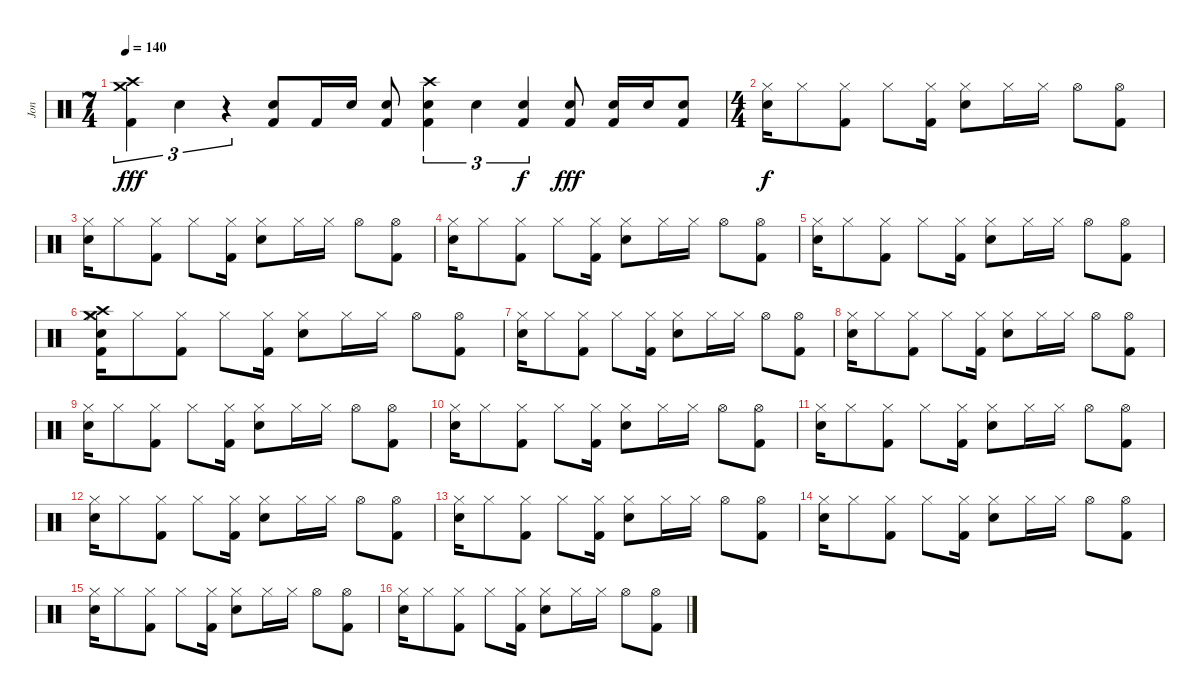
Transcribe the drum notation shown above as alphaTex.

\track ("Jon" "Jon") {instrument percussion}
\staff {score}
\articulation defaults
\ts (7 4)
\tempo 140
\clef neutral
\ks c
("Crash medium (hit)" "Crash high (hit)" "Kick (hit) 2").4{tu (3 2) dy fff} "Snare (hit) 2".4{tu (3 2)} r.4{tu (3 2)} ("Snare (hit) 2" "Kick (hit) 2").8 "Kick (hit) 2".16 "Electric Snare (hit)".16 ("Snare (hit) 2" "Kick (hit) 2").8 ("Crash high (hit)" "Electric Snare (hit)" "Kick (hit) 2").4{tu (3 2)} "Snare (hit) 2".4{tu (3 2)} ("Electric Snare (hit)" "Kick (hit) 2").4{tu (3 2) dy f} ("Snare (hit) 2" "Kick (hit) 2").8{dy fff} ("Electric Snare (hit)" "Kick (hit) 2").16 "Electric Snare (hit)".16 ("Snare (hit) 2" "Kick (hit) 2").8 |
\ts (4 4)
("Hi-Hat (closed)" "Electric Snare (hit)").16{dy f} "Hi-Hat (closed)".8 ("Hi-Hat (closed)" "Kick (hit) 2").8 "Hi-Hat (closed)".8 ("Hi-Hat (closed)" "Kick (hit) 2").16 ("Hi-Hat (closed)" "Snare (hit) 2").8 "Hi-Hat (closed)".16 "Hi-Hat (closed)".16 "Hi-Hat (open)".8 ("Hi-Hat (open)" "Kick (hit) 2").8 |
("Hi-Hat (closed)" "Electric Snare (hit)").16 "Hi-Hat (closed)".8 ("Hi-Hat (closed)" "Kick (hit) 2").8 "Hi-Hat (closed)".8 ("Hi-Hat (closed)" "Kick (hit) 2").16 ("Hi-Hat (closed)" "Snare (hit) 2").8 "Hi-Hat (closed)".16 "Hi-Hat (closed)".16 "Hi-Hat (open)".8 ("Hi-Hat (open)" "Kick (hit) 2").8 |
("Hi-Hat (closed)" "Electric Snare (hit)").16 "Hi-Hat (closed)".8 ("Hi-Hat (closed)" "Kick (hit) 2").8 "Hi-Hat (closed)".8 ("Hi-Hat (closed)" "Kick (hit) 2").16 ("Hi-Hat (closed)" "Snare (hit) 2").8 "Hi-Hat (closed)".16 "Hi-Hat (closed)".16 "Hi-Hat (open)".8 ("Hi-Hat (open)" "Kick (hit) 2").8 |
("Hi-Hat (closed)" "Electric Snare (hit)").16 "Hi-Hat (closed)".8 ("Hi-Hat (closed)" "Kick (hit) 2").8 "Hi-Hat (closed)".8 ("Hi-Hat (closed)" "Kick (hit) 2").16 ("Hi-Hat (closed)" "Snare (hit) 2").8 "Hi-Hat (closed)".16 "Hi-Hat (closed)".16 "Hi-Hat (open)".8 ("Hi-Hat (open)" "Kick (hit) 2").8 |
("Crash high (hit)" "Crash medium (hit)" "Hi-Hat (closed)" "Electric Snare (hit)" "Kick (hit) 2").16 "Hi-Hat (closed)".8 ("Hi-Hat (closed)" "Kick (hit) 2").8 "Hi-Hat (closed)".8 ("Hi-Hat (closed)" "Kick (hit) 2").16 ("Hi-Hat (closed)" "Snare (hit) 2").8 "Hi-Hat (closed)".16 "Hi-Hat (closed)".16 "Hi-Hat (open)".8 ("Hi-Hat (open)" "Kick (hit) 2").8 |
("Hi-Hat (closed)" "Electric Snare (hit)").16 "Hi-Hat (closed)".8 ("Hi-Hat (closed)" "Kick (hit) 2").8 "Hi-Hat (closed)".8 ("Hi-Hat (closed)" "Kick (hit) 2").16 ("Hi-Hat (closed)" "Snare (hit) 2").8 "Hi-Hat (closed)".16 "Hi-Hat (closed)".16 "Hi-Hat (open)".8 ("Hi-Hat (open)" "Kick (hit) 2").8 |
("Hi-Hat (closed)" "Electric Snare (hit)").16 "Hi-Hat (closed)".8 ("Hi-Hat (closed)" "Kick (hit) 2").8 "Hi-Hat (closed)".8 ("Hi-Hat (closed)" "Kick (hit) 2").16 ("Hi-Hat (closed)" "Snare (hit) 2").8 "Hi-Hat (closed)".16 "Hi-Hat (closed)".16 "Hi-Hat (open)".8 ("Hi-Hat (open)" "Kick (hit) 2").8 |
("Hi-Hat (closed)" "Electric Snare (hit)").16 "Hi-Hat (closed)".8 ("Hi-Hat (closed)" "Kick (hit) 2").8 "Hi-Hat (closed)".8 ("Hi-Hat (closed)" "Kick (hit) 2").16 ("Hi-Hat (closed)" "Snare (hit) 2").8 "Hi-Hat (closed)".16 "Hi-Hat (closed)".16 "Hi-Hat (open)".8 ("Hi-Hat (open)" "Kick (hit) 2").8 |
("Hi-Hat (closed)" "Electric Snare (hit)").16 "Hi-Hat (closed)".8 ("Hi-Hat (closed)" "Kick (hit) 2").8 "Hi-Hat (closed)".8 ("Hi-Hat (closed)" "Kick (hit) 2").16 ("Hi-Hat (closed)" "Snare (hit) 2").8 "Hi-Hat (closed)".16 "Hi-Hat (closed)".16 "Hi-Hat (open)".8 ("Hi-Hat (open)" "Kick (hit) 2").8 |
("Hi-Hat (closed)" "Electric Snare (hit)").16 "Hi-Hat (closed)".8 ("Hi-Hat (closed)" "Kick (hit) 2").8 "Hi-Hat (closed)".8 ("Hi-Hat (closed)" "Kick (hit) 2").16 ("Hi-Hat (closed)" "Snare (hit) 2").8 "Hi-Hat (closed)".16 "Hi-Hat (closed)".16 "Hi-Hat (open)".8 ("Hi-Hat (open)" "Kick (hit) 2").8 |
("Hi-Hat (closed)" "Electric Snare (hit)").16 "Hi-Hat (closed)".8 ("Hi-Hat (closed)" "Kick (hit) 2").8 "Hi-Hat (closed)".8 ("Hi-Hat (closed)" "Kick (hit) 2").16 ("Hi-Hat (closed)" "Snare (hit) 2").8 "Hi-Hat (closed)".16 "Hi-Hat (closed)".16 "Hi-Hat (open)".8 ("Hi-Hat (open)" "Kick (hit) 2").8 |
("Hi-Hat (closed)" "Electric Snare (hit)").16 "Hi-Hat (closed)".8 ("Hi-Hat (closed)" "Kick (hit) 2").8 "Hi-Hat (closed)".8 ("Hi-Hat (closed)" "Kick (hit) 2").16 ("Hi-Hat (closed)" "Snare (hit) 2").8 "Hi-Hat (closed)".16 "Hi-Hat (closed)".16 "Hi-Hat (open)".8 ("Hi-Hat (open)" "Kick (hit) 2").8 |
("Hi-Hat (closed)" "Electric Snare (hit)").16 "Hi-Hat (closed)".8 ("Hi-Hat (closed)" "Kick (hit) 2").8 "Hi-Hat (closed)".8 ("Hi-Hat (closed)" "Kick (hit) 2").16 ("Hi-Hat (closed)" "Snare (hit) 2").8 "Hi-Hat (closed)".16 "Hi-Hat (closed)".16 "Hi-Hat (open)".8 ("Hi-Hat (open)" "Kick (hit) 2").8 |
("Hi-Hat (closed)" "Electric Snare (hit)").16 "Hi-Hat (closed)".8 ("Hi-Hat (closed)" "Kick (hit) 2").8 "Hi-Hat (closed)".8 ("Hi-Hat (closed)" "Kick (hit) 2").16 ("Hi-Hat (closed)" "Snare (hit) 2").8 "Hi-Hat (closed)".16 "Hi-Hat (closed)".16 "Hi-Hat (open)".8 ("Hi-Hat (open)" "Kick (hit) 2").8 |
("Hi-Hat (closed)" "Electric Snare (hit)").16 "Hi-Hat (closed)".8 ("Hi-Hat (closed)" "Kick (hit) 2").8 "Hi-Hat (closed)".8 ("Hi-Hat (closed)" "Kick (hit) 2").16 ("Hi-Hat (closed)" "Snare (hit) 2").8 "Hi-Hat (closed)".16 "Hi-Hat (closed)".16 "Hi-Hat (open)".8 ("Hi-Hat (open)" "Kick (hit) 2").8
